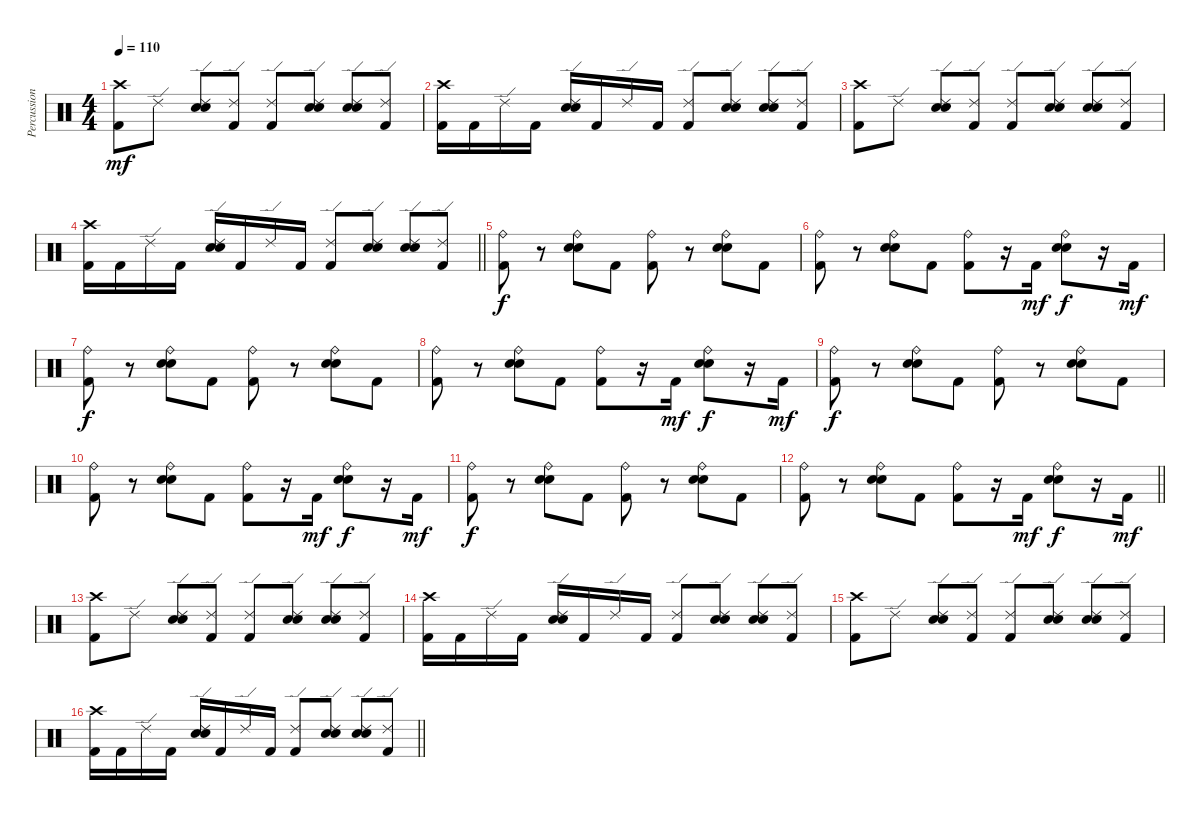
\track ("Percussions" "Percussion") {instrument percussion}
\staff {score}
\articulation defaults
\ts (4 4)
\section ("" "")
\tempo 110
\clef neutral
\ks c
("Crash high (hit)" "Kick (hit) 2").8{dy mf} "Ride (edge) 2".8 ("Ride (edge) 2" "Hand Clap (hit)" "Electric Snare (hit)").8 ("Ride (edge) 2" "Kick (hit) 2").8 ("Ride (edge) 2" "Kick (hit) 2").8 ("Ride (edge) 2" "Hand Clap (hit)" "Electric Snare (hit)").8 ("Ride (edge) 2" "Hand Clap (hit)" "Electric Snare (hit)").8 ("Ride (edge) 2" "Kick (hit) 2").8 |
("Crash high (hit)" "Kick (hit) 2").16 "Kick (hit) 2".16 "Ride (edge) 2".16 "Kick (hit) 2".16 ("Ride (edge) 2" "Hand Clap (hit)" "Electric Snare (hit)").16 "Kick (hit) 2".16 "Ride (edge) 2".16 "Kick (hit) 2".16 ("Ride (edge) 2" "Kick (hit) 2").8 ("Ride (edge) 2" "Hand Clap (hit)" "Electric Snare (hit)").8 ("Ride (edge) 2" "Hand Clap (hit)" "Electric Snare (hit)").8 ("Ride (edge) 2" "Kick (hit) 2").8 |
("Crash high (hit)" "Kick (hit) 2").8 "Ride (edge) 2".8 ("Ride (edge) 2" "Hand Clap (hit)" "Electric Snare (hit)").8 ("Ride (edge) 2" "Kick (hit) 2").8 ("Ride (edge) 2" "Kick (hit) 2").8 ("Ride (edge) 2" "Hand Clap (hit)" "Electric Snare (hit)").8 ("Ride (edge) 2" "Hand Clap (hit)" "Electric Snare (hit)").8 ("Ride (edge) 2" "Kick (hit) 2").8 |
\barLineRight lightlight
("Crash high (hit)" "Kick (hit) 2").16 "Kick (hit) 2".16 "Ride (edge) 2".16 "Kick (hit) 2".16 ("Ride (edge) 2" "Hand Clap (hit)" "Electric Snare (hit)").16 "Kick (hit) 2".16 "Ride (edge) 2".16 "Kick (hit) 2".16 ("Ride (edge) 2" "Kick (hit) 2").8 ("Ride (edge) 2" "Hand Clap (hit)" "Electric Snare (hit)").8 ("Ride (edge) 2" "Hand Clap (hit)" "Electric Snare (hit)").8 ("Ride (edge) 2" "Kick (hit) 2").8 |
\section ("" "")
("Ride (bell)" "Kick (hit) 2").8{dy f} r.8 ("Ride (bell)" "Hand Clap (hit)" "Electric Snare (hit)").8 "Kick (hit) 2".8 ("Ride (bell)" "Kick (hit) 2").8 r.8 ("Ride (bell)" "Hand Clap (hit)" "Electric Snare (hit)").8 "Kick (hit) 2".8 |
("Ride (bell)" "Kick (hit) 2").8 r.8 ("Ride (bell)" "Hand Clap (hit)" "Electric Snare (hit)").8 "Kick (hit) 2".8 ("Ride (bell)" "Kick (hit) 2").8 r.16 "Kick (hit) 2".16{dy mf} ("Ride (bell)" "Hand Clap (hit)" "Electric Snare (hit)").8{dy f} r.16 "Kick (hit) 2".16{dy mf} |
("Ride (bell)" "Kick (hit) 2").8{dy f} r.8 ("Ride (bell)" "Hand Clap (hit)" "Electric Snare (hit)").8 "Kick (hit) 2".8 ("Ride (bell)" "Kick (hit) 2").8 r.8 ("Ride (bell)" "Hand Clap (hit)" "Electric Snare (hit)").8 "Kick (hit) 2".8 |
("Ride (bell)" "Kick (hit) 2").8 r.8 ("Ride (bell)" "Hand Clap (hit)" "Electric Snare (hit)").8 "Kick (hit) 2".8 ("Ride (bell)" "Kick (hit) 2").8 r.16 "Kick (hit) 2".16{dy mf} ("Ride (bell)" "Hand Clap (hit)" "Electric Snare (hit)").8{dy f} r.16 "Kick (hit) 2".16{dy mf} |
("Ride (bell)" "Kick (hit) 2").8{dy f} r.8 ("Ride (bell)" "Hand Clap (hit)" "Electric Snare (hit)").8 "Kick (hit) 2".8 ("Ride (bell)" "Kick (hit) 2").8 r.8 ("Ride (bell)" "Hand Clap (hit)" "Electric Snare (hit)").8 "Kick (hit) 2".8 |
("Ride (bell)" "Kick (hit) 2").8 r.8 ("Ride (bell)" "Hand Clap (hit)" "Electric Snare (hit)").8 "Kick (hit) 2".8 ("Ride (bell)" "Kick (hit) 2").8 r.16 "Kick (hit) 2".16{dy mf} ("Ride (bell)" "Hand Clap (hit)" "Electric Snare (hit)").8{dy f} r.16 "Kick (hit) 2".16{dy mf} |
("Ride (bell)" "Kick (hit) 2").8{dy f} r.8 ("Ride (bell)" "Hand Clap (hit)" "Electric Snare (hit)").8 "Kick (hit) 2".8 ("Ride (bell)" "Kick (hit) 2").8 r.8 ("Ride (bell)" "Hand Clap (hit)" "Electric Snare (hit)").8 "Kick (hit) 2".8 |
\barLineRight lightlight
("Ride (bell)" "Kick (hit) 2").8 r.8 ("Ride (bell)" "Hand Clap (hit)" "Electric Snare (hit)").8 "Kick (hit) 2".8 ("Ride (bell)" "Kick (hit) 2").8 r.16 "Kick (hit) 2".16{dy mf} ("Ride (bell)" "Hand Clap (hit)" "Electric Snare (hit)").8{dy f} r.16 "Kick (hit) 2".16{dy mf} |
\section ("" "")
("Crash high (hit)" "Kick (hit) 2").8 "Ride (edge) 2".8 ("Ride (edge) 2" "Hand Clap (hit)" "Electric Snare (hit)").8 ("Ride (edge) 2" "Kick (hit) 2").8 ("Ride (edge) 2" "Kick (hit) 2").8 ("Ride (edge) 2" "Hand Clap (hit)" "Electric Snare (hit)").8 ("Ride (edge) 2" "Hand Clap (hit)" "Electric Snare (hit)").8 ("Ride (edge) 2" "Kick (hit) 2").8 |
("Crash high (hit)" "Kick (hit) 2").16 "Kick (hit) 2".16 "Ride (edge) 2".16 "Kick (hit) 2".16 ("Ride (edge) 2" "Hand Clap (hit)" "Electric Snare (hit)").16 "Kick (hit) 2".16 "Ride (edge) 2".16 "Kick (hit) 2".16 ("Ride (edge) 2" "Kick (hit) 2").8 ("Ride (edge) 2" "Hand Clap (hit)" "Electric Snare (hit)").8 ("Ride (edge) 2" "Hand Clap (hit)" "Electric Snare (hit)").8 ("Ride (edge) 2" "Kick (hit) 2").8 |
("Crash high (hit)" "Kick (hit) 2").8 "Ride (edge) 2".8 ("Ride (edge) 2" "Hand Clap (hit)" "Electric Snare (hit)").8 ("Ride (edge) 2" "Kick (hit) 2").8 ("Ride (edge) 2" "Kick (hit) 2").8 ("Ride (edge) 2" "Hand Clap (hit)" "Electric Snare (hit)").8 ("Ride (edge) 2" "Hand Clap (hit)" "Electric Snare (hit)").8 ("Ride (edge) 2" "Kick (hit) 2").8 |
\barLineRight lightlight
("Crash high (hit)" "Kick (hit) 2").16 "Kick (hit) 2".16 "Ride (edge) 2".16 "Kick (hit) 2".16 ("Ride (edge) 2" "Hand Clap (hit)" "Electric Snare (hit)").16 "Kick (hit) 2".16 "Ride (edge) 2".16 "Kick (hit) 2".16 ("Ride (edge) 2" "Kick (hit) 2").8 ("Ride (edge) 2" "Hand Clap (hit)" "Electric Snare (hit)").8 ("Ride (edge) 2" "Hand Clap (hit)" "Electric Snare (hit)").8 ("Ride (edge) 2" "Kick (hit) 2").8
